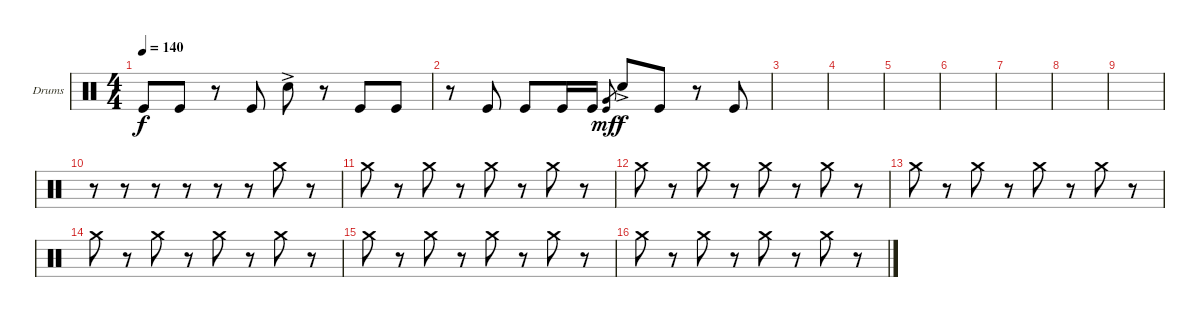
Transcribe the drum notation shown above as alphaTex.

\defaultSystemsLayout 4
\bracketExtendMode groupsimilarinstruments
\firstSystemTrackNameOrientation horizontal
\otherSystemsTrackNameOrientation horizontal
\track ("Drumkit" "Drums") {instrument percussion}
\staff {score}
\articulation defaults
\ts (4 4)
\tempo 140
\clef neutral
\ks c "Kick (hit)".8{dy f} "Kick (hit)".8
r.8 "Kick (hit)".8 "Snare (hit) 2"{ac}.8 r.8 "Kick (hit)".8 "Kick (hit)".8 |
r.8 "Kick (hit)".8 "Kick (hit)".8 "Kick (hit)".16 "Kick (hit)".16 ("Very Low Tom (hit)" "Kick (hit)").8{gr dy mf} "Snare (hit) 2"{ac}.8{dy f} "Kick (hit)".8 r.8 "Kick (hit)".8 |
|
|
|
|
|
|
|
r.8 r.8 r.8 r.8 r.8 r.8 "Crash medium (hit)".8 r.8 |
"Crash medium (hit)".8 r.8 "Crash medium (hit)".8 r.8 "Crash medium (hit)".8 r.8 "Crash medium (hit)".8 r.8 |
"Crash medium (hit)".8 r.8 "Crash medium (hit)".8 r.8 "Crash medium (hit)".8 r.8 "Crash medium (hit)".8 r.8 |
"Crash medium (hit)".8 r.8 "Crash medium (hit)".8 r.8 "Crash medium (hit)".8 r.8 "Crash medium (hit)".8 r.8 |
"Crash medium (hit)".8 r.8 "Crash medium (hit)".8 r.8 "Crash medium (hit)".8 r.8 "Crash medium (hit)".8 r.8 |
"Crash medium (hit)".8 r.8 "Crash medium (hit)".8 r.8 "Crash medium (hit)".8 r.8 "Crash medium (hit)".8 r.8 |
"Crash medium (hit)".8 r.8 "Crash medium (hit)".8 r.8 "Crash medium (hit)".8 r.8 "Crash medium (hit)".8 r.8
